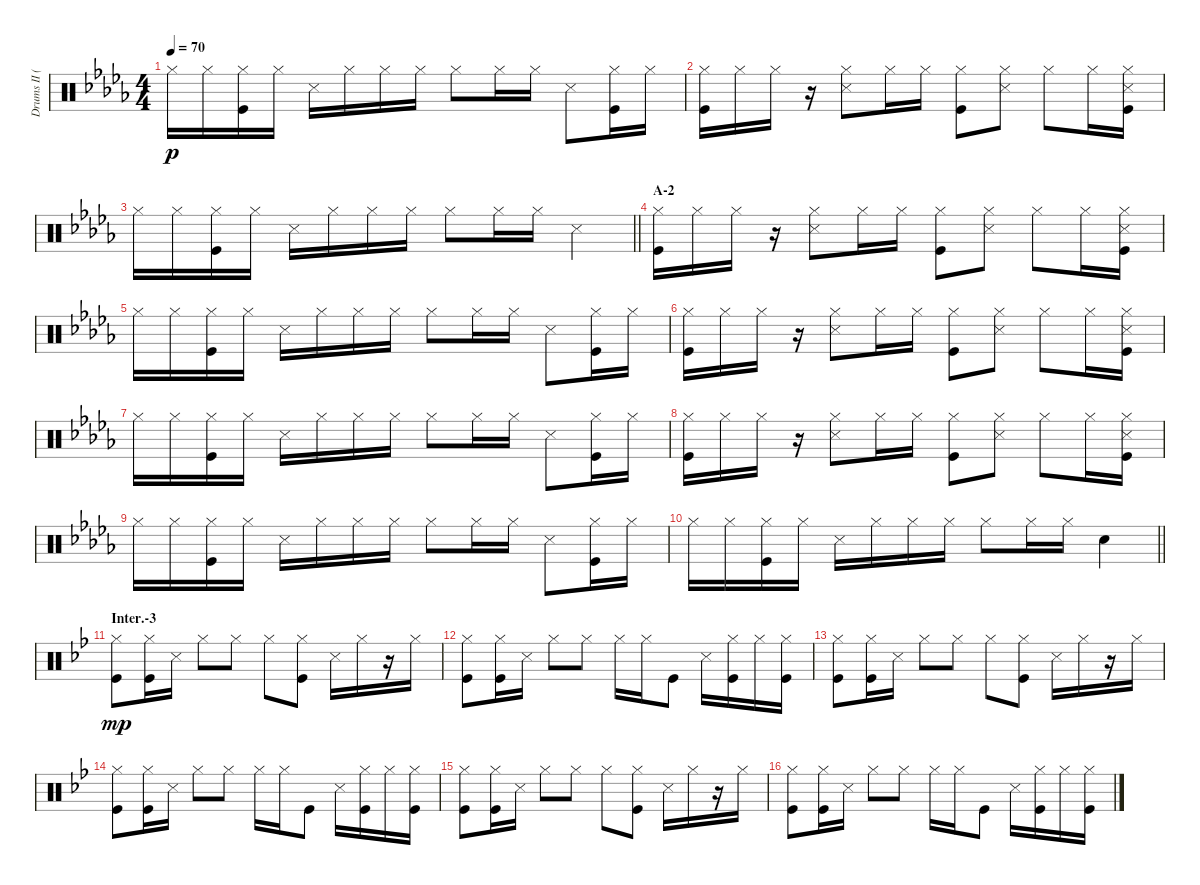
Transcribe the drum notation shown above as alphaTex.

\track ("Drums II (Tainaka Ritsu)" "Drums II (") {instrument percussion}
\staff {score}
\articulation defaults
\ts (4 4)
\tempo 70
\clef neutral
\ks db "Hi-Hat (closed)".16{dy p} "Hi-Hat (closed)".16
("Hi-Hat (closed)" "Kick (hit)").16 "Hi-Hat (closed)".16 "Snare (side stick) 3".16 "Hi-Hat (closed)".16 "Hi-Hat (closed)".16 "Hi-Hat (closed)".16 "Hi-Hat (closed)".8 "Hi-Hat (closed)".16 "Hi-Hat (closed)".16 "Snare (side stick) 3".8 ("Hi-Hat (closed)" "Kick (hit)").16 "Hi-Hat (closed)".16 |
("Hi-Hat (closed)" "Kick (hit)").16 "Hi-Hat (closed)".16 "Hi-Hat (closed)".16 r.16 ("Hi-Hat (closed)" "Snare (side stick) 3").8 "Hi-Hat (closed)".16 "Hi-Hat (closed)".16 ("Hi-Hat (closed)" "Kick (hit)").8 ("Hi-Hat (closed)" "Snare (side stick) 3").8 "Hi-Hat (closed)".8 "Hi-Hat (closed)".16 ("Hi-Hat (closed)" "Snare (side stick) 3" "Kick (hit)").16 |
\barLineRight lightlight "Hi-Hat (closed)".16 "Hi-Hat (closed)".16
("Hi-Hat (closed)" "Kick (hit)").16 "Hi-Hat (closed)".16 "Snare (side stick) 3".16 "Hi-Hat (closed)".16 "Hi-Hat (closed)".16 "Hi-Hat (closed)".16 "Hi-Hat (closed)".8 "Hi-Hat (closed)".16 "Hi-Hat (closed)".16 "Snare (side stick) 3".4 |
\section ("" "A-2")
("Hi-Hat (closed)" "Kick (hit)").16 "Hi-Hat (closed)".16 "Hi-Hat (closed)".16 r.16 ("Hi-Hat (closed)" "Snare (side stick) 3").8 "Hi-Hat (closed)".16 "Hi-Hat (closed)".16 ("Hi-Hat (closed)" "Kick (hit)").8 ("Hi-Hat (closed)" "Snare (side stick) 3").8 "Hi-Hat (closed)".8 "Hi-Hat (closed)".16 ("Hi-Hat (closed)" "Snare (side stick) 3" "Kick (hit)").16 |
"Hi-Hat (closed)".16 "Hi-Hat (closed)".16 ("Hi-Hat (closed)" "Kick (hit)").16 "Hi-Hat (closed)".16 "Snare (side stick) 3".16 "Hi-Hat (closed)".16 "Hi-Hat (closed)".16 "Hi-Hat (closed)".16 "Hi-Hat (closed)".8 "Hi-Hat (closed)".16 "Hi-Hat (closed)".16 "Snare (side stick) 3".8 ("Hi-Hat (closed)" "Kick (hit)").16 "Hi-Hat (closed)".16 |
("Hi-Hat (closed)" "Kick (hit)").16 "Hi-Hat (closed)".16 "Hi-Hat (closed)".16 r.16 ("Hi-Hat (closed)" "Snare (side stick) 3").8 "Hi-Hat (closed)".16 "Hi-Hat (closed)".16 ("Hi-Hat (closed)" "Kick (hit)").8 ("Hi-Hat (closed)" "Snare (side stick) 3").8 "Hi-Hat (closed)".8 "Hi-Hat (closed)".16 ("Hi-Hat (closed)" "Snare (side stick) 3" "Kick (hit)").16 |
"Hi-Hat (closed)".16 "Hi-Hat (closed)".16 ("Hi-Hat (closed)" "Kick (hit)").16 "Hi-Hat (closed)".16 "Snare (side stick) 3".16 "Hi-Hat (closed)".16 "Hi-Hat (closed)".16 "Hi-Hat (closed)".16 "Hi-Hat (closed)".8 "Hi-Hat (closed)".16 "Hi-Hat (closed)".16 "Snare (side stick) 3".8 ("Hi-Hat (closed)" "Kick (hit)").16 "Hi-Hat (closed)".16 |
("Hi-Hat (closed)" "Kick (hit)").16 "Hi-Hat (closed)".16 "Hi-Hat (closed)".16 r.16 ("Hi-Hat (closed)" "Snare (side stick) 3").8 "Hi-Hat (closed)".16 "Hi-Hat (closed)".16 ("Hi-Hat (closed)" "Kick (hit)").8 ("Hi-Hat (closed)" "Snare (side stick) 3").8 "Hi-Hat (closed)".8 "Hi-Hat (closed)".16 ("Hi-Hat (closed)" "Snare (side stick) 3" "Kick (hit)").16 |
"Hi-Hat (closed)".16 "Hi-Hat (closed)".16 ("Hi-Hat (closed)" "Kick (hit)").16 "Hi-Hat (closed)".16 "Snare (side stick) 3".16 "Hi-Hat (closed)".16 "Hi-Hat (closed)".16 "Hi-Hat (closed)".16 "Hi-Hat (closed)".8 "Hi-Hat (closed)".16 "Hi-Hat (closed)".16 "Snare (side stick) 3".8 ("Hi-Hat (closed)" "Kick (hit)").16 "Hi-Hat (closed)".16 |
\barLineRight lightlight "Hi-Hat (closed)".16 "Hi-Hat (closed)".16
("Hi-Hat (closed)" "Kick (hit)").16 "Hi-Hat (closed)".16 "Snare (side stick) 3".16 "Hi-Hat (closed)".16 "Hi-Hat (closed)".16 "Hi-Hat (closed)".16 "Hi-Hat (closed)".8 "Hi-Hat (closed)".16 "Hi-Hat (closed)".16 "Snare (hit) 2".4 |
\section ("" "Inter.-3")
\ks bb
("Hi-Hat (closed)" "Kick (hit)").8{dy mp} ("Hi-Hat (closed)" "Kick (hit)").16 "Snare (side stick) 3".16 "Hi-Hat (closed)".8 "Hi-Hat (closed)".8 "Hi-Hat (closed)".8 ("Hi-Hat (closed)" "Kick (hit)").8 "Snare (side stick) 3".16 "Hi-Hat (closed)".16 r.16 "Hi-Hat (closed)".16 |
("Hi-Hat (closed)" "Kick (hit)").8 ("Hi-Hat (closed)" "Kick (hit)").16 "Snare (side stick) 3".16 "Hi-Hat (closed)".8 "Hi-Hat (closed)".8 "Hi-Hat (closed)".16 "Hi-Hat (closed)".16 "Kick (hit)".8 "Snare (side stick) 3".16 ("Hi-Hat (closed)" "Kick (hit)").16 "Hi-Hat (closed)".16 ("Hi-Hat (closed)" "Kick (hit)").16 |
("Hi-Hat (closed)" "Kick (hit)").8 ("Hi-Hat (closed)" "Kick (hit)").16 "Snare (side stick) 3".16 "Hi-Hat (closed)".8 "Hi-Hat (closed)".8 "Hi-Hat (closed)".8 ("Hi-Hat (closed)" "Kick (hit)").8 "Snare (side stick) 3".16 "Hi-Hat (closed)".16 r.16 "Hi-Hat (closed)".16 |
("Hi-Hat (closed)" "Kick (hit)").8 ("Hi-Hat (closed)" "Kick (hit)").16 "Snare (side stick) 3".16 "Hi-Hat (closed)".8 "Hi-Hat (closed)".8 "Hi-Hat (closed)".16 "Hi-Hat (closed)".16 "Kick (hit)".8 "Snare (side stick) 3".16 ("Hi-Hat (closed)" "Kick (hit)").16 "Hi-Hat (closed)".16 ("Hi-Hat (closed)" "Kick (hit)").16 |
("Hi-Hat (closed)" "Kick (hit)").8 ("Hi-Hat (closed)" "Kick (hit)").16 "Snare (side stick) 3".16 "Hi-Hat (closed)".8 "Hi-Hat (closed)".8 "Hi-Hat (closed)".8 ("Hi-Hat (closed)" "Kick (hit)").8 "Snare (side stick) 3".16 "Hi-Hat (closed)".16 r.16 "Hi-Hat (closed)".16 |
("Hi-Hat (closed)" "Kick (hit)").8 ("Hi-Hat (closed)" "Kick (hit)").16 "Snare (side stick) 3".16 "Hi-Hat (closed)".8 "Hi-Hat (closed)".8 "Hi-Hat (closed)".16 "Hi-Hat (closed)".16 "Kick (hit)".8 "Snare (side stick) 3".16 ("Hi-Hat (closed)" "Kick (hit)").16 "Hi-Hat (closed)".16 ("Hi-Hat (closed)" "Kick (hit)").16
